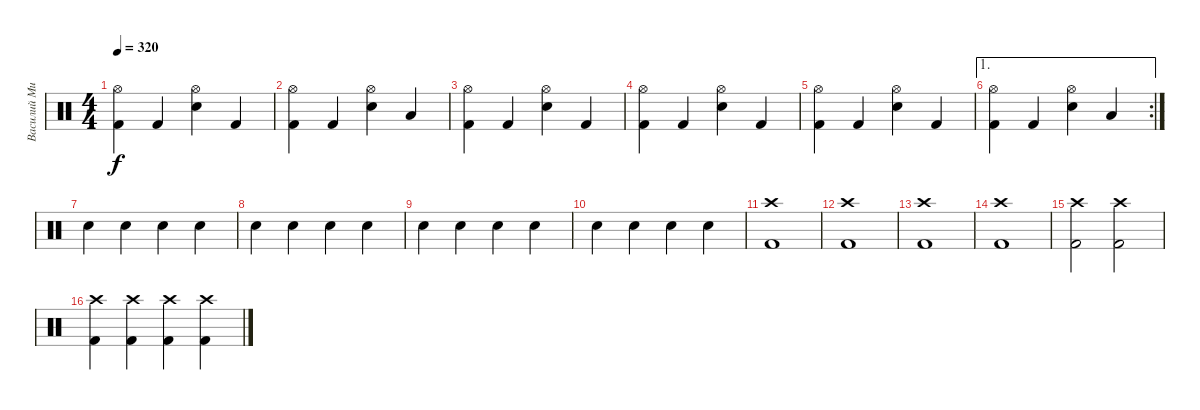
\track ("Василий Михалыч-ударные" "Василий Ми") {instrument percussion}
\staff {score}
\articulation defaults
\ts (4 4)
\tempo 320
\clef neutral
\ks c
("Kick (hit) 2" "Hi-Hat (open)").4{dy f} "Kick (hit) 2".4 ("Snare (hit) 2" "Hi-Hat (open)").4 "Kick (hit) 2".4 |
("Kick (hit) 2" "Hi-Hat (open)").4 "Kick (hit) 2".4 ("Snare (hit) 2" "Hi-Hat (open)").4 "Low Tom (hit)".4 |
("Kick (hit) 2" "Hi-Hat (open)").4 "Kick (hit) 2".4 ("Snare (hit) 2" "Hi-Hat (open)").4 "Kick (hit) 2".4 |
("Kick (hit) 2" "Hi-Hat (open)").4 "Kick (hit) 2".4 ("Snare (hit) 2" "Hi-Hat (open)").4 "Kick (hit) 2".4 |
("Kick (hit) 2" "Hi-Hat (open)").4 "Kick (hit) 2".4 ("Snare (hit) 2" "Hi-Hat (open)").4 "Kick (hit) 2".4 |
\ae 1
\rc 2
("Kick (hit) 2" "Hi-Hat (open)").4 "Kick (hit) 2".4 ("Snare (hit) 2" "Hi-Hat (open)").4 "Low Tom (hit)".4 |
"Electric Snare (hit)".4 "Electric Snare (hit)".4 "Electric Snare (hit)".4 "Electric Snare (hit)".4 |
"Electric Snare (hit)".4 "Electric Snare (hit)".4 "Electric Snare (hit)".4 "Electric Snare (hit)".4 |
"Electric Snare (hit)".4 "Electric Snare (hit)".4 "Electric Snare (hit)".4 "Electric Snare (hit)".4 |
"Electric Snare (hit)".4 "Electric Snare (hit)".4 "Electric Snare (hit)".4 "Electric Snare (hit)".4 |
("Kick (hit) 2" "Crash high (hit)").1 |
("Kick (hit) 2" "Crash high (hit)").1 |
("Kick (hit) 2" "Crash high (hit)").1 |
("Kick (hit) 2" "Crash high (hit)").1 |
("Kick (hit) 2" "Crash high (hit)").2 ("Kick (hit) 2" "Crash high (hit)").2 |
("Kick (hit) 2" "Crash high (hit)").4 ("Kick (hit) 2" "Crash high (hit)").4 ("Kick (hit) 2" "Crash high (hit)").4 ("Kick (hit) 2" "Crash high (hit)").4
